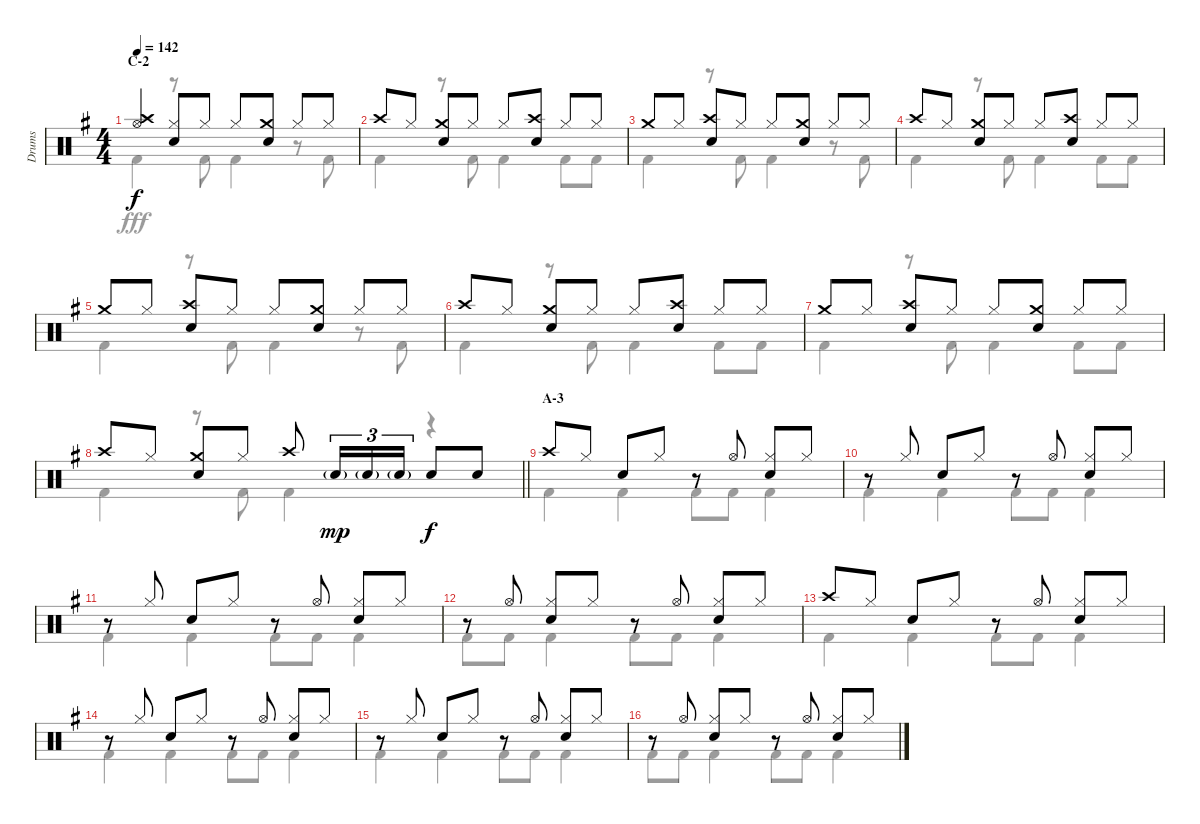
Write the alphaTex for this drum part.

\track ("Drums" "Drums") {instrument percussion}
\staff {score}
\articulation defaults
\voice
\ts (4 4)
\section ("" "C-2")
\tempo 142
\clef neutral
\ks g
("Crash high (hit)" "Hi-Hat (open)").4{dy f} ("Hi-Hat (closed)" "Snare (hit) 2").8 "Hi-Hat (closed)".8 "Hi-Hat (closed)".8 ("Crash medium (hit)" "Snare (hit) 2").8 "Hi-Hat (closed)".8 "Hi-Hat (closed)".8 |
"Crash high (hit)".8 "Hi-Hat (closed)".8 ("Crash medium (hit)" "Snare (hit) 2").8 "Hi-Hat (closed)".8 "Hi-Hat (closed)".8 ("Crash high (hit)" "Snare (hit) 2").8 "Hi-Hat (closed)".8 "Hi-Hat (closed)".8 |
"Crash medium (hit)".8 "Hi-Hat (closed)".8 ("Crash high (hit)" "Snare (hit) 2").8 "Hi-Hat (closed)".8 "Hi-Hat (closed)".8 ("Crash medium (hit)" "Snare (hit) 2").8 "Hi-Hat (closed)".8 "Hi-Hat (closed)".8 |
"Crash high (hit)".8 "Hi-Hat (closed)".8 ("Crash medium (hit)" "Snare (hit) 2").8 "Hi-Hat (closed)".8 "Hi-Hat (closed)".8 ("Crash high (hit)" "Snare (hit) 2").8 "Hi-Hat (closed)".8 "Hi-Hat (closed)".8 |
"Crash medium (hit)".8 "Hi-Hat (closed)".8 ("Crash high (hit)" "Snare (hit) 2").8 "Hi-Hat (closed)".8 "Hi-Hat (closed)".8 ("Crash medium (hit)" "Snare (hit) 2").8 "Hi-Hat (closed)".8 "Hi-Hat (closed)".8 |
"Crash high (hit)".8 "Hi-Hat (closed)".8 ("Crash medium (hit)" "Snare (hit) 2").8 "Hi-Hat (closed)".8 "Hi-Hat (closed)".8 ("Crash high (hit)" "Snare (hit) 2").8 "Hi-Hat (closed)".8 "Hi-Hat (closed)".8 |
"Crash medium (hit)".8 "Hi-Hat (closed)".8 ("Crash high (hit)" "Snare (hit) 2").8 "Hi-Hat (closed)".8 "Hi-Hat (closed)".8 ("Crash medium (hit)" "Snare (hit) 2").8 "Hi-Hat (closed)".8 "Hi-Hat (closed)".8 |
\barLineRight lightlight "Crash high (hit)".8 "Hi-Hat (closed)".8
("Crash medium (hit)" "Snare (hit) 2").8 "Hi-Hat (closed)".8 "Crash high (hit)".8 "Snare (hit) 2"{g}.16{tu (3 2) dy mp} "Snare (hit) 2"{g}.16{tu (3 2)} "Snare (hit) 2"{g}.16{tu (3 2)} "Snare (hit) 2".8{dy f} "Snare (hit) 2".8 |
\section ("" "A-3")
"Crash high (hit)".8 "Hi-Hat (closed)".8 "Snare (hit) 2".8 "Hi-Hat (closed)".8 r.8 "Hi-Hat (open)".8 ("Hi-Hat (closed)" "Snare (hit) 2").8 "Hi-Hat (closed)".8 |
r.8 "Hi-Hat (closed)".8 "Snare (hit) 2".8 "Hi-Hat (closed)".8 r.8 "Hi-Hat (open)".8 ("Hi-Hat (closed)" "Snare (hit) 2").8 "Hi-Hat (closed)".8 |
r.8 "Hi-Hat (closed)".8 "Snare (hit) 2".8 "Hi-Hat (closed)".8 r.8 "Hi-Hat (open)".8 ("Hi-Hat (closed)" "Snare (hit) 2").8 "Hi-Hat (closed)".8 |
r.8 "Hi-Hat (open)".8 ("Hi-Hat (closed)" "Snare (hit) 2").8 "Hi-Hat (closed)".8 r.8 "Hi-Hat (open)".8 ("Hi-Hat (closed)" "Snare (hit) 2").8 "Hi-Hat (closed)".8 |
"Crash high (hit)".8 "Hi-Hat (closed)".8 "Snare (hit) 2".8 "Hi-Hat (closed)".8 r.8 "Hi-Hat (open)".8 ("Hi-Hat (closed)" "Snare (hit) 2").8 "Hi-Hat (closed)".8 |
r.8 "Hi-Hat (closed)".8 "Snare (hit) 2".8 "Hi-Hat (closed)".8 r.8 "Hi-Hat (open)".8 ("Hi-Hat (closed)" "Snare (hit) 2").8 "Hi-Hat (closed)".8 |
r.8 "Hi-Hat (closed)".8 "Snare (hit) 2".8 "Hi-Hat (closed)".8 r.8 "Hi-Hat (open)".8 ("Hi-Hat (closed)" "Snare (hit) 2").8 "Hi-Hat (closed)".8 |
r.8 "Hi-Hat (open)".8 ("Hi-Hat (closed)" "Snare (hit) 2").8 "Hi-Hat (closed)".8 r.8 "Hi-Hat (open)".8 ("Hi-Hat (closed)" "Snare (hit) 2").8 "Hi-Hat (closed)".8
\voice
\clef neutral
\ottava regular
\simile none
\ks g "Kick (hit) 2".4{dy fff}
r.8 "Kick (hit) 2".8 "Kick (hit) 2".4 r.8 "Kick (hit) 2".8 |
"Kick (hit) 2".4 r.8 "Kick (hit) 2".8 "Kick (hit) 2".4 "Kick (hit) 2".8 "Kick (hit) 2".8 |
"Kick (hit) 2".4 r.8 "Kick (hit) 2".8 "Kick (hit) 2".4 r.8 "Kick (hit) 2".8 |
"Kick (hit) 2".4 r.8 "Kick (hit) 2".8 "Kick (hit) 2".4 "Kick (hit) 2".8 "Kick (hit) 2".8 |
"Kick (hit) 2".4 r.8 "Kick (hit) 2".8 "Kick (hit) 2".4 r.8 "Kick (hit) 2".8 |
"Kick (hit) 2".4 r.8 "Kick (hit) 2".8 "Kick (hit) 2".4 "Kick (hit) 2".8 "Kick (hit) 2".8 |
"Kick (hit) 2".4 r.8 "Kick (hit) 2".8 "Kick (hit) 2".4 "Kick (hit) 2".8 "Kick (hit) 2".8 |
\barLineRight lightlight "Kick (hit) 2".4
r.8 "Kick (hit) 2".8 "Kick (hit) 2".4 r.4 |
"Kick (hit) 2".4 "Kick (hit) 2".4 "Kick (hit) 2".8 "Kick (hit) 2".8 "Kick (hit) 2".4 |
"Kick (hit) 2".4 "Kick (hit) 2".4 "Kick (hit) 2".8 "Kick (hit) 2".8 "Kick (hit) 2".4 |
"Kick (hit) 2".4 "Kick (hit) 2".4 "Kick (hit) 2".8 "Kick (hit) 2".8 "Kick (hit) 2".4 |
"Kick (hit) 2".8 "Kick (hit) 2".8 "Kick (hit) 2".4 "Kick (hit) 2".8 "Kick (hit) 2".8 "Kick (hit) 2".4 |
"Kick (hit) 2".4 "Kick (hit) 2".4 "Kick (hit) 2".8 "Kick (hit) 2".8 "Kick (hit) 2".4 |
"Kick (hit) 2".4 "Kick (hit) 2".4 "Kick (hit) 2".8 "Kick (hit) 2".8 "Kick (hit) 2".4 |
"Kick (hit) 2".4 "Kick (hit) 2".4 "Kick (hit) 2".8 "Kick (hit) 2".8 "Kick (hit) 2".4 |
"Kick (hit) 2".8 "Kick (hit) 2".8 "Kick (hit) 2".4 "Kick (hit) 2".8 "Kick (hit) 2".8 "Kick (hit) 2".4
